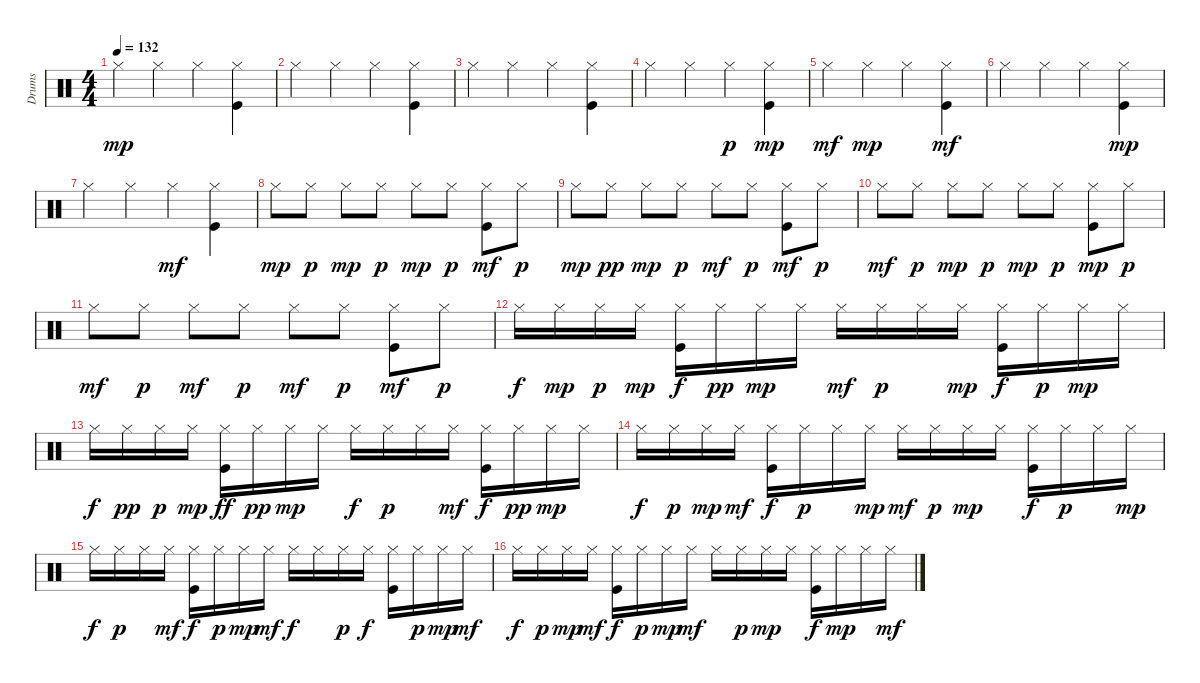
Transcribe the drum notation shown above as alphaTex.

\track ("Drums" "Drums") {instrument percussion}
\staff {score}
\articulation defaults
\ts (4 4)
\tempo 132
\clef neutral
\ks c "Hi-Hat (closed)".4{dy mp} "Hi-Hat (closed)".4 "Hi-Hat (closed)".4
("Hi-Hat (closed)" "Kick (hit)").4 |
"Hi-Hat (closed)".4 "Hi-Hat (closed)".4 "Hi-Hat (closed)".4 ("Hi-Hat (closed)" "Kick (hit)").4 |
"Hi-Hat (closed)".4 "Hi-Hat (closed)".4 "Hi-Hat (closed)".4 ("Hi-Hat (closed)" "Kick (hit)").4 |
"Hi-Hat (closed)".4 "Hi-Hat (closed)".4 "Hi-Hat (closed)".4{dy p} ("Hi-Hat (closed)" "Kick (hit)").4{dy mp} |
"Hi-Hat (closed)".4{dy mf} "Hi-Hat (closed)".4{dy mp} "Hi-Hat (closed)".4 ("Hi-Hat (closed)" "Kick (hit)").4{dy mf} |
"Hi-Hat (closed)".4 "Hi-Hat (closed)".4 "Hi-Hat (closed)".4 ("Hi-Hat (closed)" "Kick (hit)").4{dy mp} |
"Hi-Hat (closed)".4 "Hi-Hat (closed)".4 "Hi-Hat (closed)".4{dy mf} ("Hi-Hat (closed)" "Kick (hit)").4 |
"Hi-Hat (closed)".8{dy mp} "Hi-Hat (closed)".8{dy p} "Hi-Hat (closed)".8{dy mp} "Hi-Hat (closed)".8{dy p} "Hi-Hat (closed)".8{dy mp} "Hi-Hat (closed)".8{dy p} ("Hi-Hat (closed)" "Kick (hit)").8{dy mf} "Hi-Hat (closed)".8{dy p} |
"Hi-Hat (closed)".8{dy mp} "Hi-Hat (closed)".8{dy pp} "Hi-Hat (closed)".8{dy mp} "Hi-Hat (closed)".8{dy p} "Hi-Hat (closed)".8{dy mf} "Hi-Hat (closed)".8{dy p} ("Hi-Hat (closed)" "Kick (hit)").8{dy mf} "Hi-Hat (closed)".8{dy p} |
"Hi-Hat (closed)".8{dy mf} "Hi-Hat (closed)".8{dy p} "Hi-Hat (closed)".8{dy mp} "Hi-Hat (closed)".8{dy p} "Hi-Hat (closed)".8{dy mp} "Hi-Hat (closed)".8{dy p} ("Hi-Hat (closed)" "Kick (hit)").8{dy mp} "Hi-Hat (closed)".8{dy p} |
"Hi-Hat (closed)".8{dy mf} "Hi-Hat (closed)".8{dy p} "Hi-Hat (closed)".8{dy mf} "Hi-Hat (closed)".8{dy p} "Hi-Hat (closed)".8{dy mf} "Hi-Hat (closed)".8{dy p} ("Hi-Hat (closed)" "Kick (hit)").8{dy mf} "Hi-Hat (closed)".8{dy p} |
"Hi-Hat (closed)".16{dy f} "Hi-Hat (closed)".16{dy mp} "Hi-Hat (closed)".16{dy p} "Hi-Hat (closed)".16{dy mp} ("Hi-Hat (closed)" "Kick (hit)").16{dy f} "Hi-Hat (closed)".16{dy pp} "Hi-Hat (closed)".16{dy mp} "Hi-Hat (closed)".16 "Hi-Hat (closed)".16{dy mf} "Hi-Hat (closed)".16{dy p} "Hi-Hat (closed)".16 "Hi-Hat (closed)".16{dy mp} ("Hi-Hat (closed)" "Kick (hit)").16{dy f} "Hi-Hat (closed)".16{dy p} "Hi-Hat (closed)".16{dy mp} "Hi-Hat (closed)".16 |
"Hi-Hat (closed)".16{dy f} "Hi-Hat (closed)".16{dy pp} "Hi-Hat (closed)".16{dy p} "Hi-Hat (closed)".16{dy mp} ("Hi-Hat (closed)" "Kick (hit)").16{dy ff} "Hi-Hat (closed)".16{dy pp} "Hi-Hat (closed)".16{dy mp} "Hi-Hat (closed)".16 "Hi-Hat (closed)".16{dy f} "Hi-Hat (closed)".16{dy p} "Hi-Hat (closed)".16 "Hi-Hat (closed)".16{dy mf} ("Hi-Hat (closed)" "Kick (hit)").16{dy f} "Hi-Hat (closed)".16{dy pp} "Hi-Hat (closed)".16{dy mp} "Hi-Hat (closed)".16 |
"Hi-Hat (closed)".16{dy f} "Hi-Hat (closed)".16{dy p} "Hi-Hat (closed)".16{dy mp} "Hi-Hat (closed)".16{dy mf} ("Hi-Hat (closed)" "Kick (hit)").16{dy f} "Hi-Hat (closed)".16{dy p} "Hi-Hat (closed)".16 "Hi-Hat (closed)".16{dy mp} "Hi-Hat (closed)".16{dy mf} "Hi-Hat (closed)".16{dy p} "Hi-Hat (closed)".16{dy mp} "Hi-Hat (closed)".16 ("Hi-Hat (closed)" "Kick (hit)").16{dy f} "Hi-Hat (closed)".16{dy p} "Hi-Hat (closed)".16 "Hi-Hat (closed)".16{dy mp} |
"Hi-Hat (closed)".16{dy f} "Hi-Hat (closed)".16{dy p} "Hi-Hat (closed)".16 "Hi-Hat (closed)".16{dy mf} ("Hi-Hat (closed)" "Kick (hit)").16{dy f} "Hi-Hat (closed)".16{dy p} "Hi-Hat (closed)".16{dy mp} "Hi-Hat (closed)".16{dy mf} "Hi-Hat (closed)".16{dy f} "Hi-Hat (closed)".16 "Hi-Hat (closed)".16{dy p} "Hi-Hat (closed)".16{dy f} ("Hi-Hat (closed)" "Kick (hit)").16 "Hi-Hat (closed)".16{dy p} "Hi-Hat (closed)".16{dy mp} "Hi-Hat (closed)".16{dy mf} |
"Hi-Hat (closed)".16{dy f} "Hi-Hat (closed)".16{dy p} "Hi-Hat (closed)".16{dy mp} "Hi-Hat (closed)".16{dy mf} ("Hi-Hat (closed)" "Kick (hit)").16{dy f} "Hi-Hat (closed)".16{dy p} "Hi-Hat (closed)".16{dy mp} "Hi-Hat (closed)".16{dy mf} "Hi-Hat (closed)".16 "Hi-Hat (closed)".16{dy p} "Hi-Hat (closed)".16{dy mp} "Hi-Hat (closed)".16 ("Hi-Hat (closed)" "Kick (hit)").16{dy f} "Hi-Hat (closed)".16{dy mp} "Hi-Hat (closed)".16 "Hi-Hat (closed)".16{dy mf}
